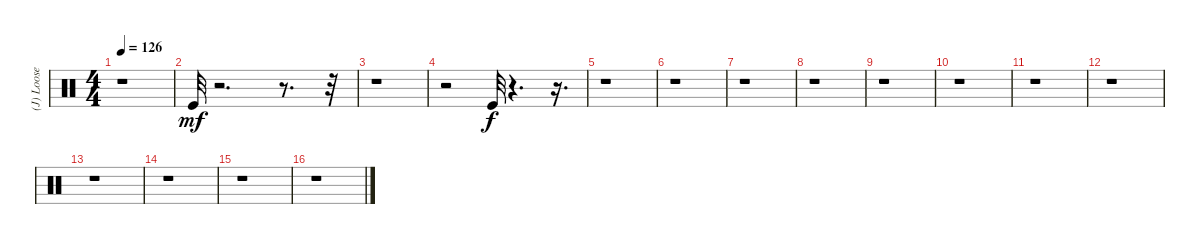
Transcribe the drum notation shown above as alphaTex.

\track ("(J) Loose Kick" "(J) Loose ") {instrument percussion}
\staff {score}
\articulation defaults
\ts (4 4)
\tempo 126
\clef neutral
\ks c
r.1{dy mf} |
"Kick (hit)".32 r.2{d} r.8{d} r.32 |
r.1 |
r.2 "Kick (hit)".32{dy f} r.4{d} r.16{d} |
r.1 |
r.1 |
r.1 |
r.1 |
r.1 |
r.1 |
r.1 |
r.1 |
r.1 |
r.1 |
r.1 |
r.1
